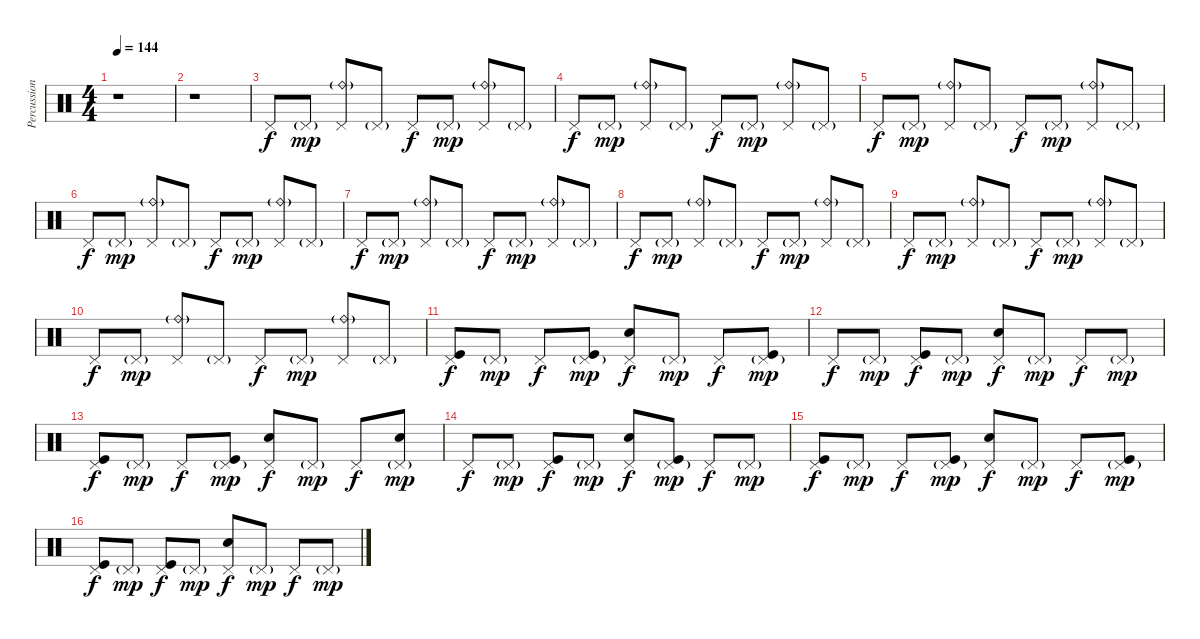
\track ("Percussion" "Percussion") {instrument percussion}
\staff {score}
\articulation defaults
\ts (4 4)
\tempo 144
\clef neutral
\ks c
r.1{dy mp} |
r.1 |
"Pedal Hi-Hat (hit)".8{dy f} "Pedal Hi-Hat (hit)"{g}.8{dy mp} ("Ride (bell)"{g} "Pedal Hi-Hat (hit)").8 "Pedal Hi-Hat (hit)"{g}.8 "Pedal Hi-Hat (hit)".8{dy f} "Pedal Hi-Hat (hit)"{g}.8{dy mp} ("Ride (bell)"{g} "Pedal Hi-Hat (hit)").8 "Pedal Hi-Hat (hit)"{g}.8 |
"Pedal Hi-Hat (hit)".8{dy f} "Pedal Hi-Hat (hit)"{g}.8{dy mp} ("Ride (bell)"{g} "Pedal Hi-Hat (hit)").8 "Pedal Hi-Hat (hit)"{g}.8 "Pedal Hi-Hat (hit)".8{dy f} "Pedal Hi-Hat (hit)"{g}.8{dy mp} ("Ride (bell)"{g} "Pedal Hi-Hat (hit)").8 "Pedal Hi-Hat (hit)"{g}.8 |
"Pedal Hi-Hat (hit)".8{dy f} "Pedal Hi-Hat (hit)"{g}.8{dy mp} ("Ride (bell)"{g} "Pedal Hi-Hat (hit)").8 "Pedal Hi-Hat (hit)"{g}.8 "Pedal Hi-Hat (hit)".8{dy f} "Pedal Hi-Hat (hit)"{g}.8{dy mp} ("Ride (bell)"{g} "Pedal Hi-Hat (hit)").8 "Pedal Hi-Hat (hit)"{g}.8 |
"Pedal Hi-Hat (hit)".8{dy f} "Pedal Hi-Hat (hit)"{g}.8{dy mp} ("Ride (bell)"{g} "Pedal Hi-Hat (hit)").8 "Pedal Hi-Hat (hit)"{g}.8 "Pedal Hi-Hat (hit)".8{dy f} "Pedal Hi-Hat (hit)"{g}.8{dy mp} ("Ride (bell)"{g} "Pedal Hi-Hat (hit)").8 "Pedal Hi-Hat (hit)"{g}.8 |
"Pedal Hi-Hat (hit)".8{dy f} "Pedal Hi-Hat (hit)"{g}.8{dy mp} ("Ride (bell)"{g} "Pedal Hi-Hat (hit)").8 "Pedal Hi-Hat (hit)"{g}.8 "Pedal Hi-Hat (hit)".8{dy f} "Pedal Hi-Hat (hit)"{g}.8{dy mp} ("Ride (bell)"{g} "Pedal Hi-Hat (hit)").8 "Pedal Hi-Hat (hit)"{g}.8 |
"Pedal Hi-Hat (hit)".8{dy f} "Pedal Hi-Hat (hit)"{g}.8{dy mp} ("Ride (bell)"{g} "Pedal Hi-Hat (hit)").8 "Pedal Hi-Hat (hit)"{g}.8 "Pedal Hi-Hat (hit)".8{dy f} "Pedal Hi-Hat (hit)"{g}.8{dy mp} ("Ride (bell)"{g} "Pedal Hi-Hat (hit)").8 "Pedal Hi-Hat (hit)"{g}.8 |
"Pedal Hi-Hat (hit)".8{dy f} "Pedal Hi-Hat (hit)"{g}.8{dy mp} ("Ride (bell)"{g} "Pedal Hi-Hat (hit)").8 "Pedal Hi-Hat (hit)"{g}.8 "Pedal Hi-Hat (hit)".8{dy f} "Pedal Hi-Hat (hit)"{g}.8{dy mp} ("Ride (bell)"{g} "Pedal Hi-Hat (hit)").8 "Pedal Hi-Hat (hit)"{g}.8 |
"Pedal Hi-Hat (hit)".8{dy f} "Pedal Hi-Hat (hit)"{g}.8{dy mp} ("Ride (bell)"{g} "Pedal Hi-Hat (hit)").8 "Pedal Hi-Hat (hit)"{g}.8 "Pedal Hi-Hat (hit)".8{dy f} "Pedal Hi-Hat (hit)"{g}.8{dy mp} ("Ride (bell)"{g} "Pedal Hi-Hat (hit)").8 "Pedal Hi-Hat (hit)"{g}.8 |
("Pedal Hi-Hat (hit)" "Kick (hit)").8{dy f} "Pedal Hi-Hat (hit)"{g}.8{dy mp} "Pedal Hi-Hat (hit)".8{dy f} ("Pedal Hi-Hat (hit)"{g} "Kick (hit)").8{dy mp} ("Pedal Hi-Hat (hit)" "Snare (hit) 2").8{dy f} "Pedal Hi-Hat (hit)"{g}.8{dy mp} "Pedal Hi-Hat (hit)".8{dy f} ("Pedal Hi-Hat (hit)"{g} "Kick (hit)").8{dy mp} |
"Pedal Hi-Hat (hit)".8{dy f} "Pedal Hi-Hat (hit)"{g}.8{dy mp} ("Pedal Hi-Hat (hit)" "Kick (hit)").8{dy f} "Pedal Hi-Hat (hit)"{g}.8{dy mp} ("Pedal Hi-Hat (hit)" "Snare (hit) 2").8{dy f} "Pedal Hi-Hat (hit)"{g}.8{dy mp} "Pedal Hi-Hat (hit)".8{dy f} "Pedal Hi-Hat (hit)"{g}.8{dy mp} |
("Pedal Hi-Hat (hit)" "Kick (hit)").8{dy f} "Pedal Hi-Hat (hit)"{g}.8{dy mp} "Pedal Hi-Hat (hit)".8{dy f} ("Pedal Hi-Hat (hit)"{g} "Kick (hit)").8{dy mp} ("Pedal Hi-Hat (hit)" "Snare (hit) 2").8{dy f} "Pedal Hi-Hat (hit)"{g}.8{dy mp} "Pedal Hi-Hat (hit)".8{dy f} ("Pedal Hi-Hat (hit)"{g} "Snare (hit) 2").8{dy mp} |
"Pedal Hi-Hat (hit)".8{dy f} "Pedal Hi-Hat (hit)"{g}.8{dy mp} ("Pedal Hi-Hat (hit)" "Kick (hit)").8{dy f} "Pedal Hi-Hat (hit)"{g}.8{dy mp} ("Pedal Hi-Hat (hit)" "Snare (hit) 2").8{dy f} ("Pedal Hi-Hat (hit)"{g} "Kick (hit)").8{dy mp} "Pedal Hi-Hat (hit)".8{dy f} "Pedal Hi-Hat (hit)"{g}.8{dy mp} |
("Pedal Hi-Hat (hit)" "Kick (hit)").8{dy f} "Pedal Hi-Hat (hit)"{g}.8{dy mp} "Pedal Hi-Hat (hit)".8{dy f} ("Pedal Hi-Hat (hit)"{g} "Kick (hit)").8{dy mp} ("Pedal Hi-Hat (hit)" "Snare (hit) 2").8{dy f} "Pedal Hi-Hat (hit)"{g}.8{dy mp} "Pedal Hi-Hat (hit)".8{dy f} ("Pedal Hi-Hat (hit)"{g} "Kick (hit)").8{dy mp} |
("Pedal Hi-Hat (hit)" "Kick (hit)").8{dy f} "Pedal Hi-Hat (hit)"{g}.8{dy mp} ("Pedal Hi-Hat (hit)" "Kick (hit)").8{dy f} "Pedal Hi-Hat (hit)"{g}.8{dy mp} ("Pedal Hi-Hat (hit)" "Snare (hit) 2").8{dy f} "Pedal Hi-Hat (hit)"{g}.8{dy mp} "Pedal Hi-Hat (hit)".8{dy f} "Pedal Hi-Hat (hit)"{g}.8{dy mp}
